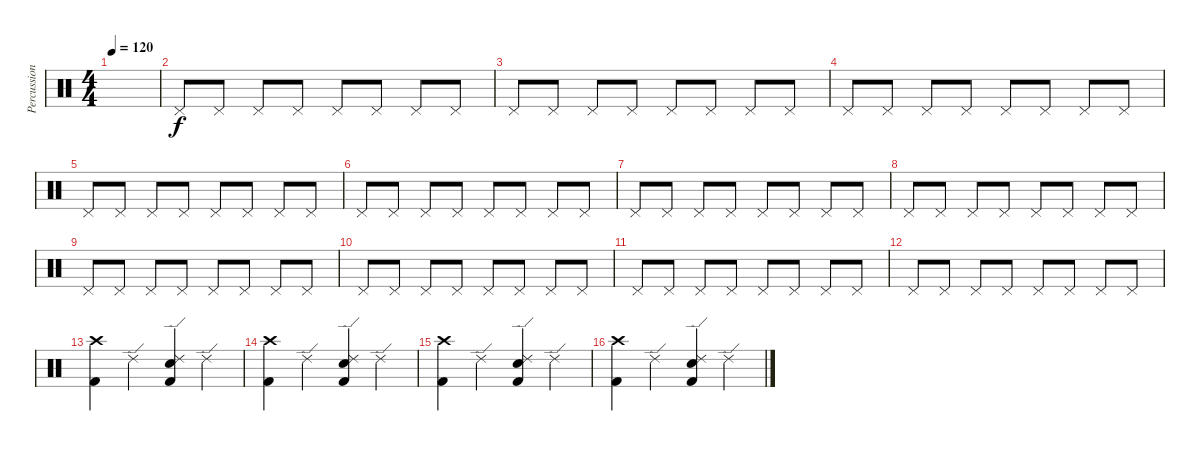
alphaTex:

\track ("Percussion" "Percussion") {instrument percussion}
\staff {score}
\articulation defaults
\ts (4 4)
\tempo 120
\clef neutral
\ks c
|
"Pedal Hi-Hat (hit)".8 "Pedal Hi-Hat (hit)".8 "Pedal Hi-Hat (hit)".8 "Pedal Hi-Hat (hit)".8 "Pedal Hi-Hat (hit)".8 "Pedal Hi-Hat (hit)".8 "Pedal Hi-Hat (hit)".8 "Pedal Hi-Hat (hit)".8 |
"Pedal Hi-Hat (hit)".8 "Pedal Hi-Hat (hit)".8 "Pedal Hi-Hat (hit)".8 "Pedal Hi-Hat (hit)".8 "Pedal Hi-Hat (hit)".8 "Pedal Hi-Hat (hit)".8 "Pedal Hi-Hat (hit)".8 "Pedal Hi-Hat (hit)".8 |
"Pedal Hi-Hat (hit)".8 "Pedal Hi-Hat (hit)".8 "Pedal Hi-Hat (hit)".8 "Pedal Hi-Hat (hit)".8 "Pedal Hi-Hat (hit)".8 "Pedal Hi-Hat (hit)".8 "Pedal Hi-Hat (hit)".8 "Pedal Hi-Hat (hit)".8 |
"Pedal Hi-Hat (hit)".8 "Pedal Hi-Hat (hit)".8 "Pedal Hi-Hat (hit)".8 "Pedal Hi-Hat (hit)".8 "Pedal Hi-Hat (hit)".8 "Pedal Hi-Hat (hit)".8 "Pedal Hi-Hat (hit)".8 "Pedal Hi-Hat (hit)".8 |
"Pedal Hi-Hat (hit)".8 "Pedal Hi-Hat (hit)".8 "Pedal Hi-Hat (hit)".8 "Pedal Hi-Hat (hit)".8 "Pedal Hi-Hat (hit)".8 "Pedal Hi-Hat (hit)".8 "Pedal Hi-Hat (hit)".8 "Pedal Hi-Hat (hit)".8 |
"Pedal Hi-Hat (hit)".8 "Pedal Hi-Hat (hit)".8 "Pedal Hi-Hat (hit)".8 "Pedal Hi-Hat (hit)".8 "Pedal Hi-Hat (hit)".8 "Pedal Hi-Hat (hit)".8 "Pedal Hi-Hat (hit)".8 "Pedal Hi-Hat (hit)".8 |
"Pedal Hi-Hat (hit)".8 "Pedal Hi-Hat (hit)".8 "Pedal Hi-Hat (hit)".8 "Pedal Hi-Hat (hit)".8 "Pedal Hi-Hat (hit)".8 "Pedal Hi-Hat (hit)".8 "Pedal Hi-Hat (hit)".8 "Pedal Hi-Hat (hit)".8 |
"Pedal Hi-Hat (hit)".8 "Pedal Hi-Hat (hit)".8 "Pedal Hi-Hat (hit)".8 "Pedal Hi-Hat (hit)".8 "Pedal Hi-Hat (hit)".8 "Pedal Hi-Hat (hit)".8 "Pedal Hi-Hat (hit)".8 "Pedal Hi-Hat (hit)".8 |
"Pedal Hi-Hat (hit)".8 "Pedal Hi-Hat (hit)".8 "Pedal Hi-Hat (hit)".8 "Pedal Hi-Hat (hit)".8 "Pedal Hi-Hat (hit)".8 "Pedal Hi-Hat (hit)".8 "Pedal Hi-Hat (hit)".8 "Pedal Hi-Hat (hit)".8 |
"Pedal Hi-Hat (hit)".8 "Pedal Hi-Hat (hit)".8 "Pedal Hi-Hat (hit)".8 "Pedal Hi-Hat (hit)".8 "Pedal Hi-Hat (hit)".8 "Pedal Hi-Hat (hit)".8 "Pedal Hi-Hat (hit)".8 "Pedal Hi-Hat (hit)".8 |
"Pedal Hi-Hat (hit)".8 "Pedal Hi-Hat (hit)".8 "Pedal Hi-Hat (hit)".8 "Pedal Hi-Hat (hit)".8 "Pedal Hi-Hat (hit)".8 "Pedal Hi-Hat (hit)".8 "Pedal Hi-Hat (hit)".8 "Pedal Hi-Hat (hit)".8 |
("Kick (hit) 2" "Crash high (hit)").4 "Ride (edge) 2".4 ("Ride (edge) 2" "Electric Snare (hit)" "Kick (hit) 2").4 "Ride (edge) 2".4 |
("Kick (hit) 2" "Crash high (hit)").4 "Ride (edge) 2".4 ("Ride (edge) 2" "Electric Snare (hit)" "Kick (hit) 2").4 "Ride (edge) 2".4 |
("Kick (hit) 2" "Crash high (hit)").4 "Ride (edge) 2".4 ("Ride (edge) 2" "Electric Snare (hit)" "Kick (hit) 2").4 "Ride (edge) 2".4 |
("Kick (hit) 2" "Crash high (hit)").4 "Ride (edge) 2".4 ("Ride (edge) 2" "Electric Snare (hit)" "Kick (hit) 2").4 "Ride (edge) 2".4
